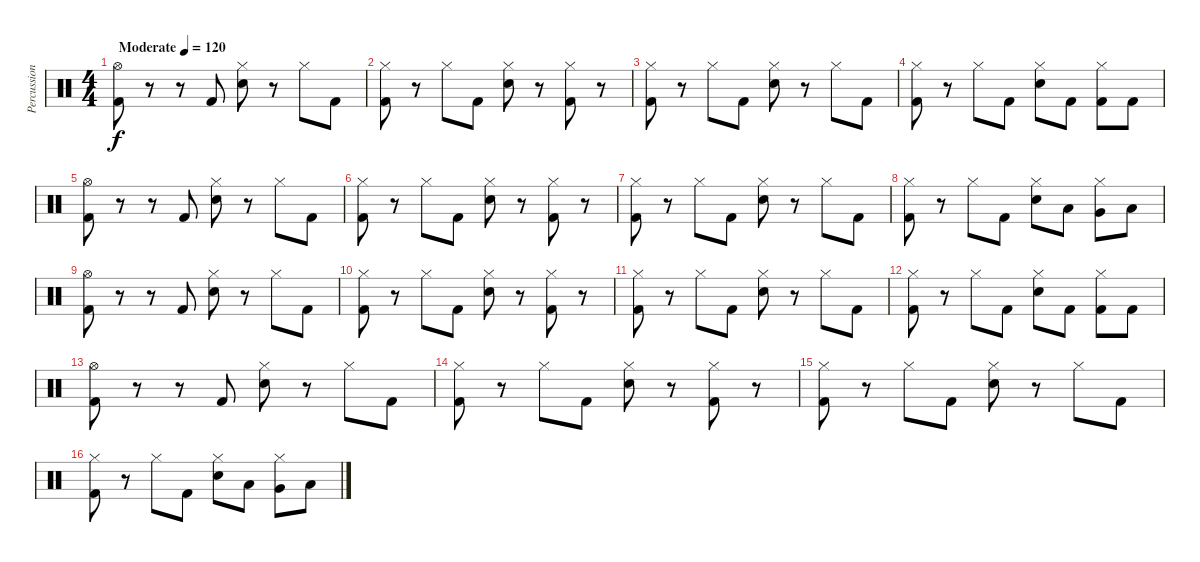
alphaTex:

\track ("Percussions" "Percussion") {instrument percussion}
\staff {score}
\articulation defaults
\ts (4 4)
\tempo (120 "Moderate")
\clef neutral
\ks c
("Hi-Hat (open)" "Kick (hit) 2").8{dy f} r.8 r.8 "Kick (hit) 2".8 ("Hi-Hat (closed)" "Snare (hit) 2").8 r.8 "Hi-Hat (closed)".8 "Kick (hit) 2".8 |
("Hi-Hat (closed)" "Kick (hit) 2").8 r.8 "Hi-Hat (closed)".8 "Kick (hit) 2".8 ("Hi-Hat (closed)" "Snare (hit) 2").8 r.8 ("Hi-Hat (closed)" "Kick (hit) 2").8 r.8 |
("Hi-Hat (closed)" "Kick (hit) 2").8 r.8 "Hi-Hat (closed)".8 "Kick (hit) 2".8 ("Hi-Hat (closed)" "Snare (hit) 2").8 r.8 "Hi-Hat (closed)".8 "Kick (hit) 2".8 |
("Hi-Hat (closed)" "Kick (hit) 2").8 r.8 "Hi-Hat (closed)".8 "Kick (hit) 2".8 ("Hi-Hat (closed)" "Snare (hit) 2").8 "Kick (hit) 2".8 ("Hi-Hat (closed)" "Kick (hit) 2").8 "Kick (hit) 2".8 |
("Hi-Hat (open)" "Kick (hit) 2").8 r.8 r.8 "Kick (hit) 2".8 ("Hi-Hat (closed)" "Snare (hit) 2").8 r.8 "Hi-Hat (closed)".8 "Kick (hit) 2".8 |
("Hi-Hat (closed)" "Kick (hit) 2").8 r.8 "Hi-Hat (closed)".8 "Kick (hit) 2".8 ("Hi-Hat (closed)" "Snare (hit) 2").8 r.8 ("Hi-Hat (closed)" "Kick (hit) 2").8 r.8 |
("Hi-Hat (closed)" "Kick (hit) 2").8 r.8 "Hi-Hat (closed)".8 "Kick (hit) 2".8 ("Hi-Hat (closed)" "Snare (hit) 2").8 r.8 "Hi-Hat (closed)".8 "Kick (hit) 2".8 |
("Hi-Hat (closed)" "Kick (hit) 2").8 r.8 "Hi-Hat (closed)".8 "Kick (hit) 2".8 ("Hi-Hat (closed)" "Snare (hit) 2").8 "Low Tom (hit)".8 ("Hi-Hat (closed)" "Very Low Tom (hit)").8 "Low Floor Tom (hit)".8 |
("Hi-Hat (open)" "Kick (hit) 2").8 r.8 r.8 "Kick (hit) 2".8 ("Hi-Hat (closed)" "Snare (hit) 2").8 r.8 "Hi-Hat (closed)".8 "Kick (hit) 2".8 |
("Hi-Hat (closed)" "Kick (hit) 2").8 r.8 "Hi-Hat (closed)".8 "Kick (hit) 2".8 ("Hi-Hat (closed)" "Snare (hit) 2").8 r.8 ("Hi-Hat (closed)" "Kick (hit) 2").8 r.8 |
("Hi-Hat (closed)" "Kick (hit) 2").8 r.8 "Hi-Hat (closed)".8 "Kick (hit) 2".8 ("Hi-Hat (closed)" "Snare (hit) 2").8 r.8 "Hi-Hat (closed)".8 "Kick (hit) 2".8 |
("Hi-Hat (closed)" "Kick (hit) 2").8 r.8 "Hi-Hat (closed)".8 "Kick (hit) 2".8 ("Hi-Hat (closed)" "Snare (hit) 2").8 "Kick (hit) 2".8 ("Hi-Hat (closed)" "Kick (hit) 2").8 "Kick (hit) 2".8 |
("Hi-Hat (open)" "Kick (hit) 2").8 r.8 r.8 "Kick (hit) 2".8 ("Hi-Hat (closed)" "Snare (hit) 2").8 r.8 "Hi-Hat (closed)".8 "Kick (hit) 2".8 |
("Hi-Hat (closed)" "Kick (hit) 2").8 r.8 "Hi-Hat (closed)".8 "Kick (hit) 2".8 ("Hi-Hat (closed)" "Snare (hit) 2").8 r.8 ("Hi-Hat (closed)" "Kick (hit) 2").8 r.8 |
("Hi-Hat (closed)" "Kick (hit) 2").8 r.8 "Hi-Hat (closed)".8 "Kick (hit) 2".8 ("Hi-Hat (closed)" "Snare (hit) 2").8 r.8 "Hi-Hat (closed)".8 "Kick (hit) 2".8 |
("Hi-Hat (closed)" "Kick (hit) 2").8 r.8 "Hi-Hat (closed)".8 "Kick (hit) 2".8 ("Hi-Hat (closed)" "Snare (hit) 2").8 "Low Tom (hit)".8 ("Hi-Hat (closed)" "Very Low Tom (hit)").8 "Low Floor Tom (hit)".8
